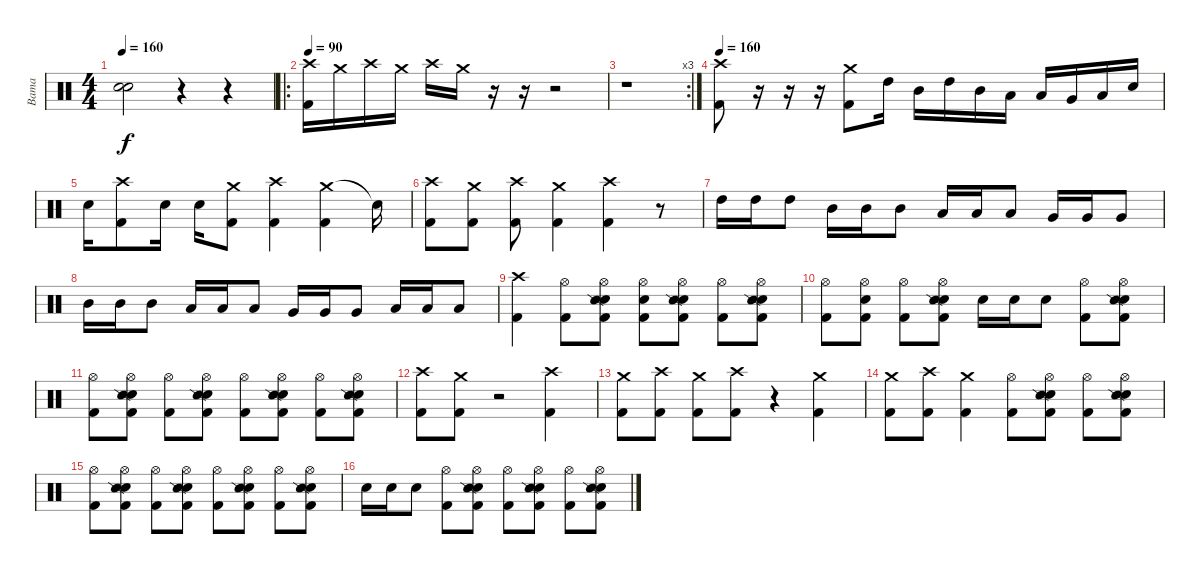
\track ("Bama" "Bama") {instrument percussion}
\staff {score}
\articulation defaults
\ts (4 4)
\tempo 160
\clef neutral
\ks c
("Snare (hit)"{t} "Snare (hit)"{t}).2{dy f} r.4 r.4 |
\ro
\tempo 90
("Crash high (hit)" "Kick (hit) 2").16 "Crash medium (hit)".16 "Crash high (hit)".16 "Crash medium (hit)".16 "Crash high (hit)".16 "Crash medium (hit)".16 r.16 r.16 r.2 |
\rc 3
r.1 |
\tempo 160
("Crash high (hit)" "Kick (hit) 2").8 r.16 r.16 r.16 ("Crash medium (hit)" "Kick (hit) 2").8 "High Tom (hit)".16 "Mid Tom (hit)".16 "High Tom (hit)".16 "Mid Tom (hit)".16 "Low Tom (hit)".16 "Low Tom (hit)".16 "Very Low Tom (hit)".16 "Low Floor Tom (hit)".16 "Electric Snare (hit)".16 |
"Electric Snare (hit)".16 ("Crash high (hit)" "Kick (hit) 2").8 "Electric Snare (hit)".16 "Electric Snare (hit)".16 ("Crash medium (hit)" "Kick (hit) 2").8 ("Crash high (hit)" "Kick (hit) 2").4 ("Crash medium (hit)" "Kick (hit) 2").4 "Snare (hit)"{t}.16 |
("Crash high (hit)" "Kick (hit) 2").8 ("Crash medium (hit)" "Kick (hit) 2").8 ("Crash high (hit)" "Kick (hit) 2").8 ("Crash medium (hit)" "Kick (hit) 2").4 ("Crash high (hit)" "Kick (hit) 2").4 r.8 |
"High Tom (hit)".16 "High Tom (hit)".16 "High Tom (hit)".8 "Mid Tom (hit)".16 "Mid Tom (hit)".16 "Mid Tom (hit)".8 "Low Tom (hit)".16 "Low Tom (hit)".16 "Low Tom (hit)".8 "Very Low Tom (hit)".16 "Very Low Tom (hit)".16 "Very Low Tom (hit)".8 |
"Mid Tom (hit)".16 "Mid Tom (hit)".16 "Mid Tom (hit)".8 "Low Tom (hit)".16 "Low Tom (hit)".16 "Low Tom (hit)".8 "Very Low Tom (hit)".16 "Very Low Tom (hit)".16 "Very Low Tom (hit)".8 "Low Floor Tom (hit)".16 "Low Floor Tom (hit)".16 "Low Floor Tom (hit)".8 |
("Crash high (hit)" "Kick (hit) 2").4 ("Hi-Hat (open)" "Kick (hit) 2").8 ("Hi-Hat (open)" "Electric Snare (hit)" "Snare (side stick) 2" "Kick (hit) 2").8 ("Hi-Hat (open)" "Snare (hit)" "Kick (hit) 2").8 ("Hi-Hat (open)" "Electric Snare (hit)" "Snare (side stick) 2" "Kick (hit) 2").8 ("Hi-Hat (open)" "Kick (hit) 2").8 ("Hi-Hat (open)" "Electric Snare (hit)" "Snare (side stick) 2" "Kick (hit) 2").8 |
("Hi-Hat (open)" "Kick (hit) 2").8 ("Hi-Hat (open)" "Electric Snare (hit)" "Kick (hit) 2").8 ("Hi-Hat (open)" "Kick (hit) 2").8 ("Hi-Hat (open)" "Electric Snare (hit)" "Snare (side stick) 2" "Kick (hit) 2").8 "Electric Snare (hit)".16 "Electric Snare (hit)".16 "Electric Snare (hit)".8 ("Hi-Hat (open)" "Kick (hit) 2").8 ("Hi-Hat (open)" "Electric Snare (hit)" "Snare (side stick) 2" "Kick (hit) 2").8 |
("Hi-Hat (open)" "Kick (hit) 2").8 ("Hi-Hat (open)" "Electric Snare (hit)" "Snare (side stick) 2" "Kick (hit) 2").8 ("Hi-Hat (open)" "Kick (hit) 2").8 ("Hi-Hat (open)" "Electric Snare (hit)" "Snare (side stick) 2" "Kick (hit) 2").8 ("Hi-Hat (open)" "Kick (hit) 2").8 ("Hi-Hat (open)" "Electric Snare (hit)" "Snare (side stick) 2" "Kick (hit) 2").8 ("Hi-Hat (open)" "Kick (hit) 2").8 ("Hi-Hat (open)" "Electric Snare (hit)" "Snare (side stick) 2" "Kick (hit) 2").8 |
("Crash high (hit)" "Kick (hit) 2").8 ("Crash medium (hit)" "Kick (hit) 2").8 r.2 ("Crash high (hit)" "Kick (hit) 2").4 |
("Crash medium (hit)" "Kick (hit) 2").8 ("Crash high (hit)" "Kick (hit) 2").8 ("Crash medium (hit)" "Kick (hit) 2").8 ("Crash high (hit)" "Kick (hit) 2").8 r.4 ("Crash medium (hit)" "Kick (hit) 2").4 |
("Crash medium (hit)" "Kick (hit) 2").8 ("Crash high (hit)" "Kick (hit) 2").8 ("Crash medium (hit)" "Kick (hit) 2").4 ("Hi-Hat (open)" "Kick (hit) 2").8 ("Hi-Hat (open)" "Electric Snare (hit)" "Snare (side stick) 2" "Kick (hit) 2").8 ("Hi-Hat (open)" "Kick (hit) 2").8 ("Hi-Hat (open)" "Electric Snare (hit)" "Snare (side stick) 2" "Kick (hit) 2").8 |
("Hi-Hat (open)" "Kick (hit) 2").8 ("Hi-Hat (open)" "Electric Snare (hit)" "Snare (side stick) 2" "Kick (hit) 2").8 ("Hi-Hat (open)" "Kick (hit) 2").8 ("Hi-Hat (open)" "Electric Snare (hit)" "Snare (side stick) 2" "Kick (hit) 2").8 ("Hi-Hat (open)" "Kick (hit) 2").8 ("Hi-Hat (open)" "Electric Snare (hit)" "Snare (side stick) 2" "Kick (hit) 2").8 ("Hi-Hat (open)" "Kick (hit) 2").8 ("Hi-Hat (open)" "Electric Snare (hit)" "Snare (side stick) 2" "Kick (hit) 2").8 |
"Electric Snare (hit)".16 "Electric Snare (hit)".16 "Electric Snare (hit)".8 ("Hi-Hat (open)" "Kick (hit) 2").8 ("Hi-Hat (open)" "Electric Snare (hit)" "Snare (side stick) 2" "Kick (hit) 2").8 ("Hi-Hat (open)" "Kick (hit) 2").8 ("Hi-Hat (open)" "Electric Snare (hit)" "Snare (side stick) 2" "Kick (hit) 2").8 ("Hi-Hat (open)" "Kick (hit) 2").8 ("Hi-Hat (open)" "Electric Snare (hit)" "Snare (side stick) 2" "Kick (hit) 2").8
